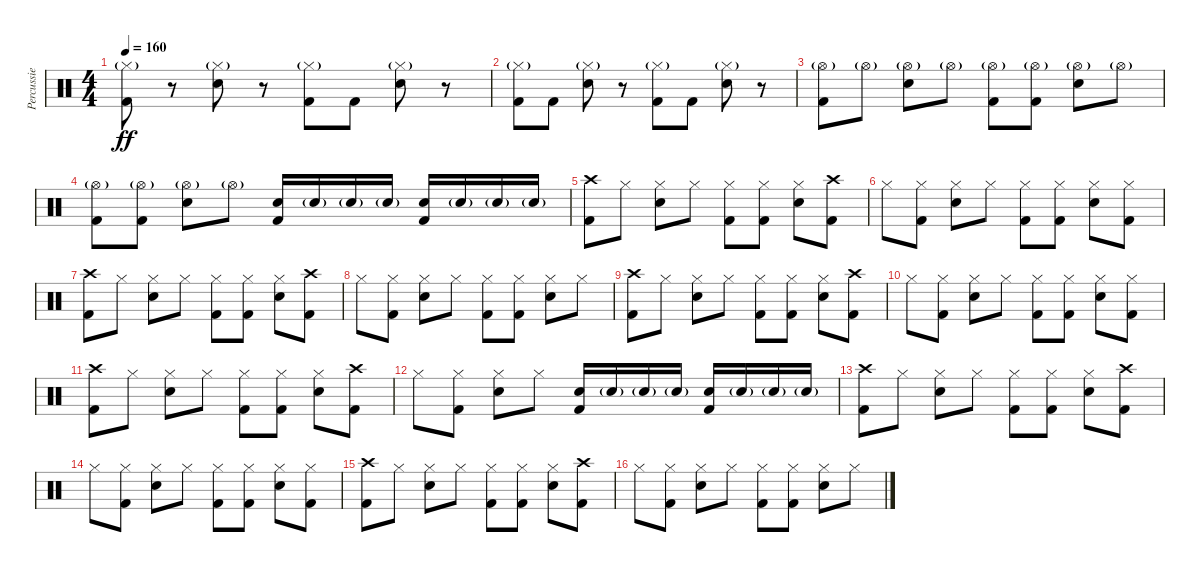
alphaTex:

\track ("Percussie" "Percussie") {instrument percussion}
\staff {score}
\articulation defaults
\ts (4 4)
\tempo 160
\clef neutral
\ks c
("Hi-Hat (closed)"{g} "Kick (hit) 2").8{dy ff} r.8 ("Hi-Hat (closed)"{g} "Snare (hit) 2").8 r.8 ("Hi-Hat (closed)"{g} "Kick (hit) 2").8 "Kick (hit) 2".8 ("Hi-Hat (closed)"{g} "Snare (hit) 2").8 r.8 |
("Hi-Hat (closed)"{g} "Kick (hit) 2").8 "Kick (hit) 2".8 ("Hi-Hat (closed)"{g} "Snare (hit) 2").8 r.8 ("Hi-Hat (closed)"{g} "Kick (hit) 2").8 "Kick (hit) 2".8 ("Hi-Hat (closed)"{g} "Snare (hit) 2").8 r.8 |
("Hi-Hat (open)"{g} "Kick (hit) 2").8 "Hi-Hat (open)"{g}.8 ("Hi-Hat (open)"{g} "Snare (hit) 2").8 "Hi-Hat (open)"{g}.8 ("Hi-Hat (open)"{g} "Kick (hit) 2").8 ("Hi-Hat (open)"{g} "Kick (hit) 2").8 ("Hi-Hat (open)"{g} "Snare (hit) 2").8 "Hi-Hat (open)"{g}.8 |
("Hi-Hat (open)"{g} "Kick (hit) 2").8 ("Hi-Hat (open)"{g} "Kick (hit) 2").8 ("Hi-Hat (open)"{g} "Snare (hit) 2").8 "Hi-Hat (open)"{g}.8 ("Snare (hit) 2" "Kick (hit) 2").16 "Snare (hit) 2"{g}.16 "Snare (hit) 2"{g}.16 "Snare (hit) 2"{g}.16 ("Snare (hit) 2" "Kick (hit) 2").16 "Snare (hit) 2"{g}.16 "Snare (hit) 2"{g}.16 "Snare (hit) 2"{g}.16 |
("Crash high (hit)" "Kick (hit) 2").8 "Hi-Hat (closed)".8 ("Hi-Hat (closed)" "Snare (hit) 2").8 "Hi-Hat (closed)".8 ("Hi-Hat (closed)" "Kick (hit) 2").8 ("Hi-Hat (closed)" "Kick (hit) 2").8 ("Hi-Hat (closed)" "Snare (hit) 2").8 ("Crash high (hit)" "Kick (hit) 2").8 |
"Hi-Hat (closed)".8 ("Hi-Hat (closed)" "Kick (hit) 2").8 ("Hi-Hat (closed)" "Snare (hit) 2").8 "Hi-Hat (closed)".8 ("Hi-Hat (closed)" "Kick (hit) 2").8 ("Hi-Hat (closed)" "Kick (hit) 2").8 ("Hi-Hat (closed)" "Snare (hit) 2").8 ("Hi-Hat (closed)" "Kick (hit) 2").8 |
("Crash high (hit)" "Kick (hit) 2").8 "Hi-Hat (closed)".8 ("Hi-Hat (closed)" "Snare (hit) 2").8 "Hi-Hat (closed)".8 ("Hi-Hat (closed)" "Kick (hit) 2").8 ("Hi-Hat (closed)" "Kick (hit) 2").8 ("Hi-Hat (closed)" "Snare (hit) 2").8 ("Crash high (hit)" "Kick (hit) 2").8 |
"Hi-Hat (closed)".8 ("Hi-Hat (closed)" "Kick (hit) 2").8 ("Hi-Hat (closed)" "Snare (hit) 2").8 "Hi-Hat (closed)".8 ("Hi-Hat (closed)" "Kick (hit) 2").8 ("Hi-Hat (closed)" "Kick (hit) 2").8 ("Hi-Hat (closed)" "Snare (hit) 2").8 "Hi-Hat (closed)".8 |
("Crash high (hit)" "Kick (hit) 2").8 "Hi-Hat (closed)".8 ("Hi-Hat (closed)" "Snare (hit) 2").8 "Hi-Hat (closed)".8 ("Hi-Hat (closed)" "Kick (hit) 2").8 ("Hi-Hat (closed)" "Kick (hit) 2").8 ("Hi-Hat (closed)" "Snare (hit) 2").8 ("Crash high (hit)" "Kick (hit) 2").8 |
"Hi-Hat (closed)".8 ("Hi-Hat (closed)" "Kick (hit) 2").8 ("Hi-Hat (closed)" "Snare (hit) 2").8 "Hi-Hat (closed)".8 ("Hi-Hat (closed)" "Kick (hit) 2").8 ("Hi-Hat (closed)" "Kick (hit) 2").8 ("Hi-Hat (closed)" "Snare (hit) 2").8 ("Hi-Hat (closed)" "Kick (hit) 2").8 |
("Crash high (hit)" "Kick (hit) 2").8 "Hi-Hat (closed)".8 ("Hi-Hat (closed)" "Snare (hit) 2").8 "Hi-Hat (closed)".8 ("Hi-Hat (closed)" "Kick (hit) 2").8 ("Hi-Hat (closed)" "Kick (hit) 2").8 ("Hi-Hat (closed)" "Snare (hit) 2").8 ("Crash high (hit)" "Kick (hit) 2").8 |
"Hi-Hat (closed)".8 ("Hi-Hat (closed)" "Kick (hit) 2").8 ("Hi-Hat (closed)" "Snare (hit) 2").8 "Hi-Hat (closed)".8 ("Snare (hit) 2" "Kick (hit) 2").16 "Snare (hit) 2"{g}.16 "Snare (hit) 2"{g}.16 "Snare (hit) 2"{g}.16 ("Snare (hit) 2" "Kick (hit) 2").16 "Snare (hit) 2"{g}.16 "Snare (hit) 2"{g}.16 "Snare (hit) 2"{g}.16 |
("Crash high (hit)" "Kick (hit) 2").8 "Hi-Hat (closed)".8 ("Hi-Hat (closed)" "Snare (hit) 2").8 "Hi-Hat (closed)".8 ("Hi-Hat (closed)" "Kick (hit) 2").8 ("Hi-Hat (closed)" "Kick (hit) 2").8 ("Hi-Hat (closed)" "Snare (hit) 2").8 ("Crash high (hit)" "Kick (hit) 2").8 |
"Hi-Hat (closed)".8 ("Hi-Hat (closed)" "Kick (hit) 2").8 ("Hi-Hat (closed)" "Snare (hit) 2").8 "Hi-Hat (closed)".8 ("Hi-Hat (closed)" "Kick (hit) 2").8 ("Hi-Hat (closed)" "Kick (hit) 2").8 ("Hi-Hat (closed)" "Snare (hit) 2").8 ("Hi-Hat (closed)" "Kick (hit) 2").8 |
("Crash high (hit)" "Kick (hit) 2").8 "Hi-Hat (closed)".8 ("Hi-Hat (closed)" "Snare (hit) 2").8 "Hi-Hat (closed)".8 ("Hi-Hat (closed)" "Kick (hit) 2").8 ("Hi-Hat (closed)" "Kick (hit) 2").8 ("Hi-Hat (closed)" "Snare (hit) 2").8 ("Crash high (hit)" "Kick (hit) 2").8 |
"Hi-Hat (closed)".8 ("Hi-Hat (closed)" "Kick (hit) 2").8 ("Hi-Hat (closed)" "Snare (hit) 2").8 "Hi-Hat (closed)".8 ("Hi-Hat (closed)" "Kick (hit) 2").8 ("Hi-Hat (closed)" "Kick (hit) 2").8 ("Hi-Hat (closed)" "Snare (hit) 2").8 "Hi-Hat (closed)".8
